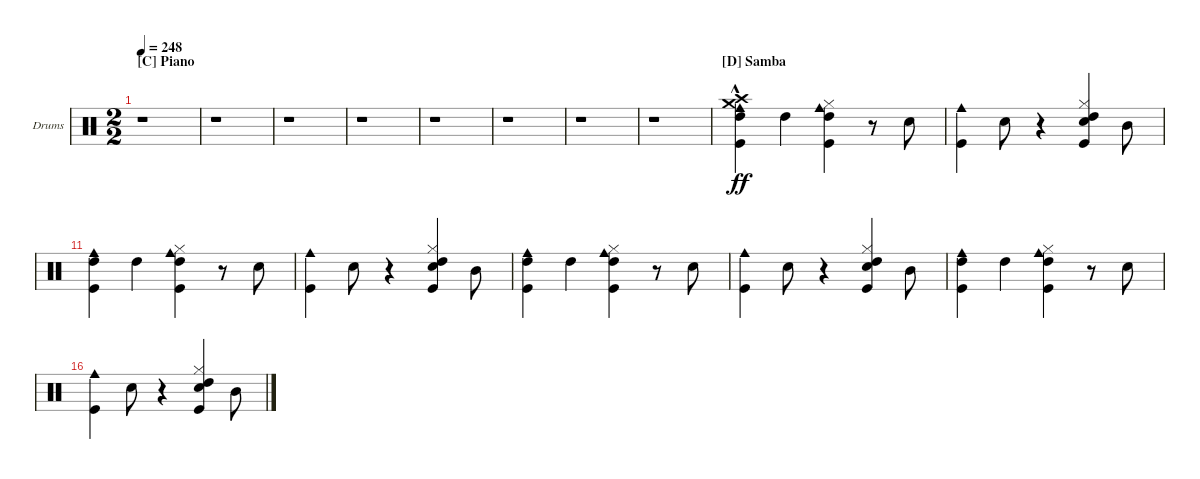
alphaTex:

\bracketExtendMode nobrackets
\firstSystemTrackNameOrientation horizontal
\otherSystemsTrackNameOrientation horizontal
\defaultBarNumberDisplay FirstOfSystem
\track ("Drumkit" "Drums") {instrument percussion}
\staff {score}
\articulation defaults
\ts (2 2)
\beaming (8 2 2 2 2)
\section ("C" "Piano")
\tempo 248
\clef neutral
\ks c
r.1{dy f} |
r.1 |
r.1 |
r.1 |
r.1 |
r.1 |
r.1 |
r.1 |
\section ("D" "Samba")
("Cowbell medium (hit)" "Kick (hit)" "High Tom (hit)" "Crash high (hit)"{hac} "Crash medium (hit)"{hac}).4{dy ff} "High Tom (hit)".4 ("Kick (hit)" "High Tom (hit)" "Cowbell medium (hit)" "Hi-Hat (closed)").4 r.8 "Snare (hit) 2".8 |
("Kick (hit)" "Cowbell medium (hit)").4 "Snare (hit) 2".8 r.4 ("Kick (hit)" "Snare (hit) 2" "High Tom (hit)" "Hi-Hat (closed)").4 "Mid Tom (hit)".8 |
("Cowbell medium (hit)" "Kick (hit)" "High Tom (hit)").4 "High Tom (hit)".4 ("Kick (hit)" "High Tom (hit)" "Cowbell medium (hit)" "Hi-Hat (closed)").4 r.8 "Snare (hit) 2".8 |
("Kick (hit)" "Cowbell medium (hit)").4 "Snare (hit) 2".8 r.4 ("Kick (hit)" "Snare (hit) 2" "High Tom (hit)" "Hi-Hat (closed)").4 "Mid Tom (hit)".8 |
("Cowbell medium (hit)" "Kick (hit)" "High Tom (hit)").4 "High Tom (hit)".4 ("Kick (hit)" "High Tom (hit)" "Cowbell medium (hit)" "Hi-Hat (closed)").4 r.8 "Snare (hit) 2".8 |
("Kick (hit)" "Cowbell medium (hit)").4 "Snare (hit) 2".8 r.4 ("Kick (hit)" "Snare (hit) 2" "High Tom (hit)" "Hi-Hat (closed)").4 "Mid Tom (hit)".8 |
("Cowbell medium (hit)" "Kick (hit)" "High Tom (hit)").4 "High Tom (hit)".4 ("Kick (hit)" "High Tom (hit)" "Cowbell medium (hit)" "Hi-Hat (closed)").4 r.8 "Snare (hit) 2".8 |
("Kick (hit)" "Cowbell medium (hit)").4 "Snare (hit) 2".8 r.4 ("Kick (hit)" "Snare (hit) 2" "High Tom (hit)" "Hi-Hat (closed)").4 "Mid Tom (hit)".8
